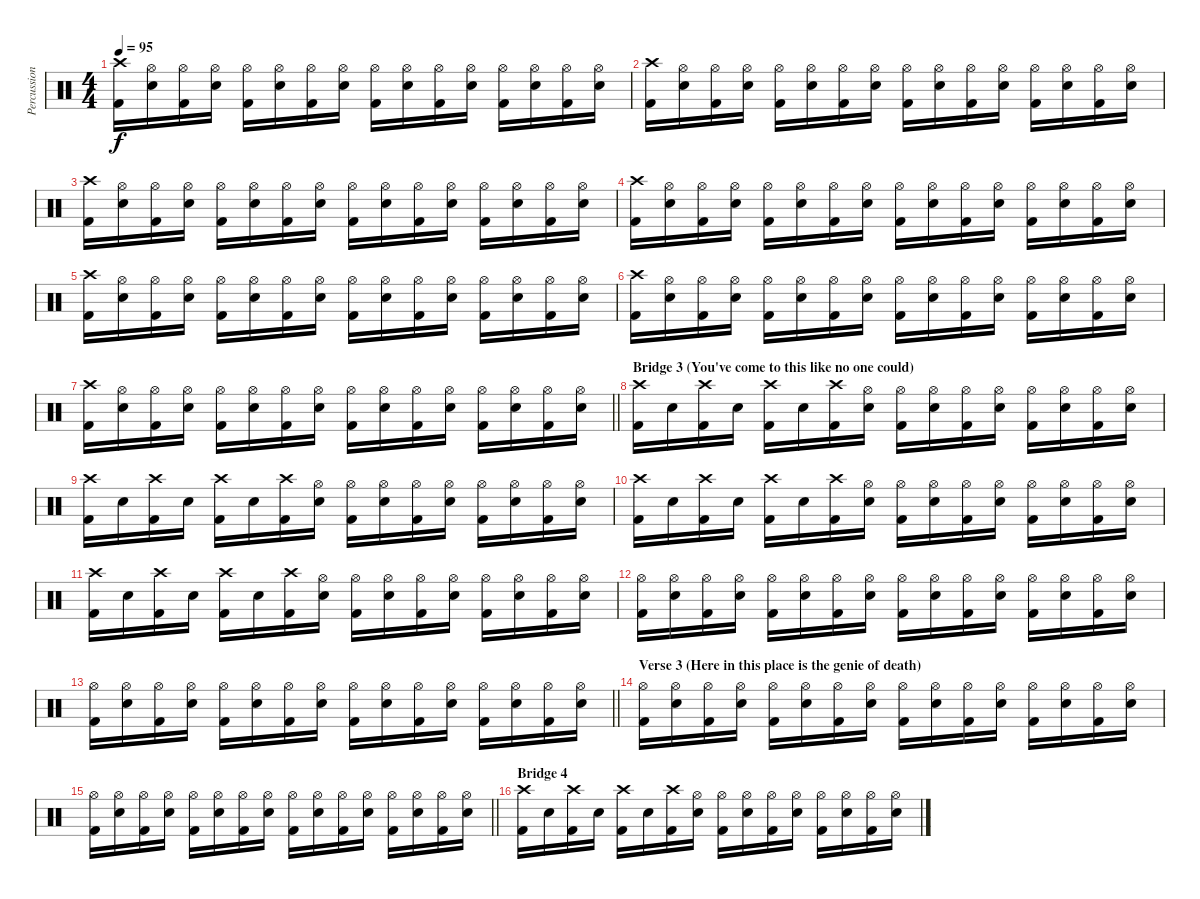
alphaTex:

\track ("Percussion" "Percussion") {instrument percussion}
\staff {score}
\articulation defaults
\ts (4 4)
\tempo 95
\clef neutral
\ks c
("Crash high (hit)" "Kick (hit) 2").16{dy f} ("Hi-Hat (open)" "Electric Snare (hit)").16 ("Hi-Hat (open)" "Kick (hit) 2").16 ("Hi-Hat (open)" "Electric Snare (hit)").16 ("Hi-Hat (open)" "Kick (hit) 2").16 ("Hi-Hat (open)" "Electric Snare (hit)").16 ("Hi-Hat (open)" "Kick (hit) 2").16 ("Hi-Hat (open)" "Electric Snare (hit)").16 ("Hi-Hat (open)" "Kick (hit) 2").16 ("Hi-Hat (open)" "Electric Snare (hit)").16 ("Hi-Hat (open)" "Kick (hit) 2").16 ("Hi-Hat (open)" "Electric Snare (hit)").16 ("Hi-Hat (open)" "Kick (hit) 2").16 ("Hi-Hat (open)" "Electric Snare (hit)").16 ("Hi-Hat (open)" "Kick (hit) 2").16 ("Hi-Hat (open)" "Electric Snare (hit)").16 |
("Crash high (hit)" "Kick (hit) 2").16 ("Hi-Hat (open)" "Electric Snare (hit)").16 ("Hi-Hat (open)" "Kick (hit) 2").16 ("Hi-Hat (open)" "Electric Snare (hit)").16 ("Hi-Hat (open)" "Kick (hit) 2").16 ("Hi-Hat (open)" "Electric Snare (hit)").16 ("Hi-Hat (open)" "Kick (hit) 2").16 ("Hi-Hat (open)" "Electric Snare (hit)").16 ("Hi-Hat (open)" "Kick (hit) 2").16 ("Hi-Hat (open)" "Electric Snare (hit)").16 ("Hi-Hat (open)" "Kick (hit) 2").16 ("Hi-Hat (open)" "Electric Snare (hit)").16 ("Hi-Hat (open)" "Kick (hit) 2").16 ("Hi-Hat (open)" "Electric Snare (hit)").16 ("Hi-Hat (open)" "Kick (hit) 2").16 ("Hi-Hat (open)" "Electric Snare (hit)").16 |
("Crash high (hit)" "Kick (hit) 2").16 ("Hi-Hat (open)" "Electric Snare (hit)").16 ("Hi-Hat (open)" "Kick (hit) 2").16 ("Hi-Hat (open)" "Electric Snare (hit)").16 ("Hi-Hat (open)" "Kick (hit) 2").16 ("Hi-Hat (open)" "Electric Snare (hit)").16 ("Hi-Hat (open)" "Kick (hit) 2").16 ("Hi-Hat (open)" "Electric Snare (hit)").16 ("Hi-Hat (open)" "Kick (hit) 2").16 ("Hi-Hat (open)" "Electric Snare (hit)").16 ("Hi-Hat (open)" "Kick (hit) 2").16 ("Hi-Hat (open)" "Electric Snare (hit)").16 ("Hi-Hat (open)" "Kick (hit) 2").16 ("Hi-Hat (open)" "Electric Snare (hit)").16 ("Hi-Hat (open)" "Kick (hit) 2").16 ("Hi-Hat (open)" "Electric Snare (hit)").16 |
("Crash high (hit)" "Kick (hit) 2").16 ("Hi-Hat (open)" "Electric Snare (hit)").16 ("Hi-Hat (open)" "Kick (hit) 2").16 ("Hi-Hat (open)" "Electric Snare (hit)").16 ("Hi-Hat (open)" "Kick (hit) 2").16 ("Hi-Hat (open)" "Electric Snare (hit)").16 ("Hi-Hat (open)" "Kick (hit) 2").16 ("Hi-Hat (open)" "Electric Snare (hit)").16 ("Hi-Hat (open)" "Kick (hit) 2").16 ("Hi-Hat (open)" "Electric Snare (hit)").16 ("Hi-Hat (open)" "Kick (hit) 2").16 ("Hi-Hat (open)" "Electric Snare (hit)").16 ("Hi-Hat (open)" "Kick (hit) 2").16 ("Hi-Hat (open)" "Electric Snare (hit)").16 ("Hi-Hat (open)" "Kick (hit) 2").16 ("Hi-Hat (open)" "Electric Snare (hit)").16 |
("Crash high (hit)" "Kick (hit) 2").16 ("Hi-Hat (open)" "Electric Snare (hit)").16 ("Hi-Hat (open)" "Kick (hit) 2").16 ("Hi-Hat (open)" "Electric Snare (hit)").16 ("Hi-Hat (open)" "Kick (hit) 2").16 ("Hi-Hat (open)" "Electric Snare (hit)").16 ("Hi-Hat (open)" "Kick (hit) 2").16 ("Hi-Hat (open)" "Electric Snare (hit)").16 ("Hi-Hat (open)" "Kick (hit) 2").16 ("Hi-Hat (open)" "Electric Snare (hit)").16 ("Hi-Hat (open)" "Kick (hit) 2").16 ("Hi-Hat (open)" "Electric Snare (hit)").16 ("Hi-Hat (open)" "Kick (hit) 2").16 ("Hi-Hat (open)" "Electric Snare (hit)").16 ("Hi-Hat (open)" "Kick (hit) 2").16 ("Hi-Hat (open)" "Electric Snare (hit)").16 |
("Crash high (hit)" "Kick (hit) 2").16 ("Hi-Hat (open)" "Electric Snare (hit)").16 ("Hi-Hat (open)" "Kick (hit) 2").16 ("Hi-Hat (open)" "Electric Snare (hit)").16 ("Hi-Hat (open)" "Kick (hit) 2").16 ("Hi-Hat (open)" "Electric Snare (hit)").16 ("Hi-Hat (open)" "Kick (hit) 2").16 ("Hi-Hat (open)" "Electric Snare (hit)").16 ("Hi-Hat (open)" "Kick (hit) 2").16 ("Hi-Hat (open)" "Electric Snare (hit)").16 ("Hi-Hat (open)" "Kick (hit) 2").16 ("Hi-Hat (open)" "Electric Snare (hit)").16 ("Hi-Hat (open)" "Kick (hit) 2").16 ("Hi-Hat (open)" "Electric Snare (hit)").16 ("Hi-Hat (open)" "Kick (hit) 2").16 ("Hi-Hat (open)" "Electric Snare (hit)").16 |
\barLineRight lightlight
("Crash high (hit)" "Kick (hit) 2").16 ("Hi-Hat (open)" "Electric Snare (hit)").16 ("Hi-Hat (open)" "Kick (hit) 2").16 ("Hi-Hat (open)" "Electric Snare (hit)").16 ("Hi-Hat (open)" "Kick (hit) 2").16 ("Hi-Hat (open)" "Electric Snare (hit)").16 ("Hi-Hat (open)" "Kick (hit) 2").16 ("Hi-Hat (open)" "Electric Snare (hit)").16 ("Hi-Hat (open)" "Kick (hit) 2").16 ("Hi-Hat (open)" "Electric Snare (hit)").16 ("Hi-Hat (open)" "Kick (hit) 2").16 ("Hi-Hat (open)" "Electric Snare (hit)").16 ("Hi-Hat (open)" "Kick (hit) 2").16 ("Hi-Hat (open)" "Electric Snare (hit)").16 ("Hi-Hat (open)" "Kick (hit) 2").16 ("Hi-Hat (open)" "Electric Snare (hit)").16 |
\section ("" "Bridge 3 (You've come to this like no one could)")
("Crash high (hit)" "Kick (hit) 2").16 "Electric Snare (hit)".16 ("Crash high (hit)" "Kick (hit) 2").16 "Electric Snare (hit)".16 ("Crash high (hit)" "Kick (hit) 2").16 "Electric Snare (hit)".16 ("Crash high (hit)" "Kick (hit) 2").16 ("Hi-Hat (open)" "Electric Snare (hit)").16 ("Hi-Hat (open)" "Kick (hit) 2").16 ("Hi-Hat (open)" "Electric Snare (hit)").16 ("Hi-Hat (open)" "Kick (hit) 2").16 ("Hi-Hat (open)" "Electric Snare (hit)").16 ("Hi-Hat (open)" "Kick (hit) 2").16 ("Hi-Hat (open)" "Electric Snare (hit)").16 ("Hi-Hat (open)" "Kick (hit) 2").16 ("Hi-Hat (open)" "Electric Snare (hit)").16 |
("Crash high (hit)" "Kick (hit) 2").16 "Electric Snare (hit)".16 ("Crash high (hit)" "Kick (hit) 2").16 "Electric Snare (hit)".16 ("Crash high (hit)" "Kick (hit) 2").16 "Electric Snare (hit)".16 ("Crash high (hit)" "Kick (hit) 2").16 ("Hi-Hat (open)" "Electric Snare (hit)").16 ("Hi-Hat (open)" "Kick (hit) 2").16 ("Hi-Hat (open)" "Electric Snare (hit)").16 ("Hi-Hat (open)" "Kick (hit) 2").16 ("Hi-Hat (open)" "Electric Snare (hit)").16 ("Hi-Hat (open)" "Kick (hit) 2").16 ("Hi-Hat (open)" "Electric Snare (hit)").16 ("Hi-Hat (open)" "Kick (hit) 2").16 ("Hi-Hat (open)" "Electric Snare (hit)").16 |
("Crash high (hit)" "Kick (hit) 2").16 "Electric Snare (hit)".16 ("Crash high (hit)" "Kick (hit) 2").16 "Electric Snare (hit)".16 ("Crash high (hit)" "Kick (hit) 2").16 "Electric Snare (hit)".16 ("Crash high (hit)" "Kick (hit) 2").16 ("Hi-Hat (open)" "Electric Snare (hit)").16 ("Hi-Hat (open)" "Kick (hit) 2").16 ("Hi-Hat (open)" "Electric Snare (hit)").16 ("Hi-Hat (open)" "Kick (hit) 2").16 ("Hi-Hat (open)" "Electric Snare (hit)").16 ("Hi-Hat (open)" "Kick (hit) 2").16 ("Hi-Hat (open)" "Electric Snare (hit)").16 ("Hi-Hat (open)" "Kick (hit) 2").16 ("Hi-Hat (open)" "Electric Snare (hit)").16 |
("Crash high (hit)" "Kick (hit) 2").16 "Electric Snare (hit)".16 ("Crash high (hit)" "Kick (hit) 2").16 "Electric Snare (hit)".16 ("Crash high (hit)" "Kick (hit) 2").16 "Electric Snare (hit)".16 ("Crash high (hit)" "Kick (hit) 2").16 ("Hi-Hat (open)" "Electric Snare (hit)").16 ("Hi-Hat (open)" "Kick (hit) 2").16 ("Hi-Hat (open)" "Electric Snare (hit)").16 ("Hi-Hat (open)" "Kick (hit) 2").16 ("Hi-Hat (open)" "Electric Snare (hit)").16 ("Hi-Hat (open)" "Kick (hit) 2").16 ("Hi-Hat (open)" "Electric Snare (hit)").16 ("Hi-Hat (open)" "Kick (hit) 2").16 ("Hi-Hat (open)" "Electric Snare (hit)").16 |
("Hi-Hat (open)" "Kick (hit) 2").16 ("Hi-Hat (open)" "Electric Snare (hit)").16 ("Hi-Hat (open)" "Kick (hit) 2").16 ("Hi-Hat (open)" "Electric Snare (hit)").16 ("Hi-Hat (open)" "Kick (hit) 2").16 ("Hi-Hat (open)" "Electric Snare (hit)").16 ("Hi-Hat (open)" "Kick (hit) 2").16 ("Hi-Hat (open)" "Electric Snare (hit)").16 ("Hi-Hat (open)" "Kick (hit) 2").16 ("Hi-Hat (open)" "Electric Snare (hit)").16 ("Hi-Hat (open)" "Kick (hit) 2").16 ("Hi-Hat (open)" "Electric Snare (hit)").16 ("Hi-Hat (open)" "Kick (hit) 2").16 ("Hi-Hat (open)" "Electric Snare (hit)").16 ("Hi-Hat (open)" "Kick (hit) 2").16 ("Hi-Hat (open)" "Electric Snare (hit)").16 |
\barLineRight lightlight
("Hi-Hat (open)" "Kick (hit) 2").16 ("Hi-Hat (open)" "Electric Snare (hit)").16 ("Hi-Hat (open)" "Kick (hit) 2").16 ("Hi-Hat (open)" "Electric Snare (hit)").16 ("Hi-Hat (open)" "Kick (hit) 2").16 ("Hi-Hat (open)" "Electric Snare (hit)").16 ("Hi-Hat (open)" "Kick (hit) 2").16 ("Hi-Hat (open)" "Electric Snare (hit)").16 ("Hi-Hat (open)" "Kick (hit) 2").16 ("Hi-Hat (open)" "Electric Snare (hit)").16 ("Hi-Hat (open)" "Kick (hit) 2").16 ("Hi-Hat (open)" "Electric Snare (hit)").16 ("Hi-Hat (open)" "Kick (hit) 2").16 ("Hi-Hat (open)" "Electric Snare (hit)").16 ("Hi-Hat (open)" "Kick (hit) 2").16 ("Hi-Hat (open)" "Electric Snare (hit)").16 |
\section ("" "Verse 3 (Here in this place is the genie of death)")
("Hi-Hat (open)" "Kick (hit) 2").16 ("Hi-Hat (open)" "Electric Snare (hit)").16 ("Hi-Hat (open)" "Kick (hit) 2").16 ("Hi-Hat (open)" "Electric Snare (hit)").16 ("Hi-Hat (open)" "Kick (hit) 2").16 ("Hi-Hat (open)" "Electric Snare (hit)").16 ("Hi-Hat (open)" "Kick (hit) 2").16 ("Hi-Hat (open)" "Electric Snare (hit)").16 ("Hi-Hat (open)" "Kick (hit) 2").16 ("Hi-Hat (open)" "Electric Snare (hit)").16 ("Hi-Hat (open)" "Kick (hit) 2").16 ("Hi-Hat (open)" "Electric Snare (hit)").16 ("Hi-Hat (open)" "Kick (hit) 2").16 ("Hi-Hat (open)" "Electric Snare (hit)").16 ("Hi-Hat (open)" "Kick (hit) 2").16 ("Hi-Hat (open)" "Electric Snare (hit)").16 |
\barLineRight lightlight
("Hi-Hat (open)" "Kick (hit) 2").16 ("Hi-Hat (open)" "Electric Snare (hit)").16 ("Hi-Hat (open)" "Kick (hit) 2").16 ("Hi-Hat (open)" "Electric Snare (hit)").16 ("Hi-Hat (open)" "Kick (hit) 2").16 ("Hi-Hat (open)" "Electric Snare (hit)").16 ("Hi-Hat (open)" "Kick (hit) 2").16 ("Hi-Hat (open)" "Electric Snare (hit)").16 ("Hi-Hat (open)" "Kick (hit) 2").16 ("Hi-Hat (open)" "Electric Snare (hit)").16 ("Hi-Hat (open)" "Kick (hit) 2").16 ("Hi-Hat (open)" "Electric Snare (hit)").16 ("Hi-Hat (open)" "Kick (hit) 2").16 ("Hi-Hat (open)" "Electric Snare (hit)").16 ("Hi-Hat (open)" "Kick (hit) 2").16 ("Hi-Hat (open)" "Electric Snare (hit)").16 |
\section ("" "Bridge 4")
("Crash high (hit)" "Kick (hit) 2").16 "Electric Snare (hit)".16 ("Crash high (hit)" "Kick (hit) 2").16 "Electric Snare (hit)".16 ("Crash high (hit)" "Kick (hit) 2").16 "Electric Snare (hit)".16 ("Crash high (hit)" "Kick (hit) 2").16 ("Hi-Hat (open)" "Electric Snare (hit)").16 ("Hi-Hat (open)" "Kick (hit) 2").16 ("Hi-Hat (open)" "Electric Snare (hit)").16 ("Hi-Hat (open)" "Kick (hit) 2").16 ("Hi-Hat (open)" "Electric Snare (hit)").16 ("Hi-Hat (open)" "Kick (hit) 2").16 ("Hi-Hat (open)" "Electric Snare (hit)").16 ("Hi-Hat (open)" "Kick (hit) 2").16 ("Hi-Hat (open)" "Electric Snare (hit)").16
